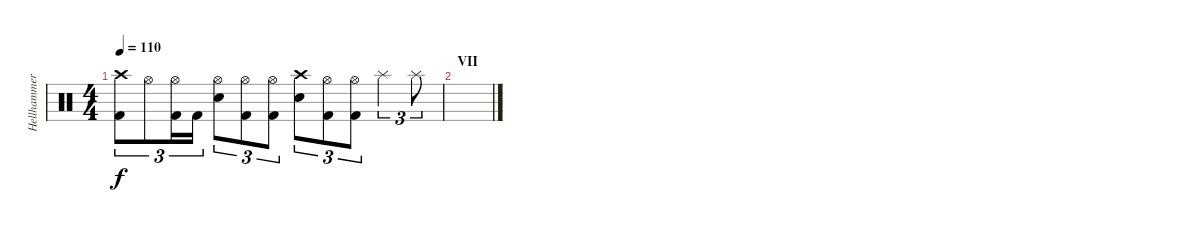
\track ("Hellhammer" "Hellhammer") {instrument percussion}
\staff {score}
\articulation defaults
\ts (4 4)
\tempo 110
\clef neutral
\ks c
("Kick (hit) 2" "Crash high (hit)").8{tu (3 2) dy f} "Hi-Hat (open)".8{tu (3 2)} ("Kick (hit) 2" "Hi-Hat (open)").16{tu (3 2)} "Kick (hit) 2".16{tu (3 2)} ("Electric Snare (hit)" "Hi-Hat (open)").8{tu (3 2)} ("Kick (hit) 2" "Hi-Hat (open)").8{tu (3 2)} ("Kick (hit) 2" "Hi-Hat (open)").8{tu (3 2)} ("Electric Snare (hit)" "Crash high (hit)").8{tu (3 2)} ("Kick (hit) 2" "Hi-Hat (open)").8{tu (3 2)} ("Kick (hit) 2" "Hi-Hat (open)").8{tu (3 2)} "Splash (hit)".4{tu (3 2)} "Splash (hit)".8{tu (3 2)} |
\section ("" "VII")
